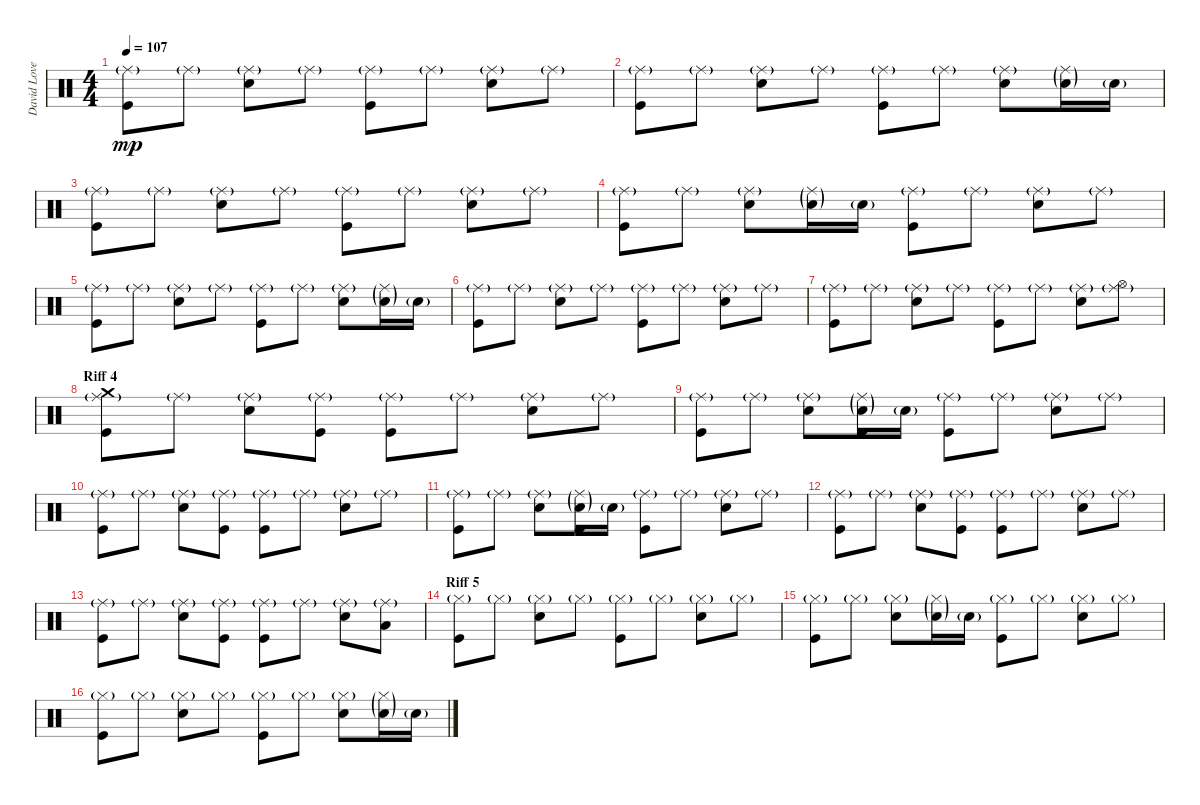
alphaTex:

\track ("David Lovering" "David Love") {instrument percussion}
\staff {score}
\articulation defaults
\ts (4 4)
\tempo 107
\clef neutral
\ks c
("Ride (middle)"{g} "Kick (hit)").8{dy mp} "Ride (middle)"{g}.8 ("Ride (middle)"{g} "Snare (hit) 2").8 "Ride (middle)"{g}.8 ("Ride (middle)"{g} "Kick (hit)").8 "Ride (middle)"{g}.8 ("Ride (middle)"{g} "Snare (hit) 2").8 "Ride (middle)"{g}.8 |
("Ride (middle)"{g} "Kick (hit)").8 "Ride (middle)"{g}.8 ("Ride (middle)"{g} "Snare (hit) 2").8 "Ride (middle)"{g}.8 ("Ride (middle)"{g} "Kick (hit)").8 "Ride (middle)"{g}.8 ("Ride (middle)"{g} "Snare (hit) 2").8 ("Ride (middle)"{g} "Snare (hit) 2"{g}).16 "Snare (hit) 2"{g}.16 |
("Ride (middle)"{g} "Kick (hit)").8 "Ride (middle)"{g}.8 ("Ride (middle)"{g} "Snare (hit) 2").8 "Ride (middle)"{g}.8 ("Ride (middle)"{g} "Kick (hit)").8 "Ride (middle)"{g}.8 ("Ride (middle)"{g} "Snare (hit) 2").8 "Ride (middle)"{g}.8 |
("Ride (middle)"{g} "Kick (hit)").8 "Ride (middle)"{g}.8 ("Ride (middle)"{g} "Snare (hit) 2").8 ("Ride (middle)"{g} "Snare (hit) 2"{g}).16 "Snare (hit) 2"{g}.16 ("Ride (middle)"{g} "Kick (hit)").8 "Ride (middle)"{g}.8 ("Ride (middle)"{g} "Snare (hit) 2").8 "Ride (middle)"{g}.8 |
("Ride (middle)"{g} "Kick (hit)").8 "Ride (middle)"{g}.8 ("Ride (middle)"{g} "Snare (hit) 2").8 "Ride (middle)"{g}.8 ("Ride (middle)"{g} "Kick (hit)").8 "Ride (middle)"{g}.8 ("Ride (middle)"{g} "Snare (hit) 2").8 ("Ride (middle)"{g} "Snare (hit) 2"{g}).16 "Snare (hit) 2"{g}.16 |
("Ride (middle)"{g} "Kick (hit)").8 "Ride (middle)"{g}.8 ("Ride (middle)"{g} "Snare (hit) 2").8 "Ride (middle)"{g}.8 ("Ride (middle)"{g} "Kick (hit)").8 "Ride (middle)"{g}.8 ("Ride (middle)"{g} "Snare (hit) 2").8 "Ride (middle)"{g}.8 |
("Ride (middle)"{g} "Kick (hit)").8 "Ride (middle)"{g}.8 ("Ride (middle)"{g} "Snare (hit) 2").8 "Ride (middle)"{g}.8 ("Ride (middle)"{g} "Kick (hit)").8 "Ride (middle)"{g}.8 ("Ride (middle)"{g} "Snare (hit) 2").8 ("Ride (middle)"{g} "Hi-Hat (open)").8 |
\section ("" "Riff 4")
("Ride (middle)"{g} "Crash medium (hit)" "Kick (hit)").8 "Ride (middle)"{g}.8 ("Ride (middle)"{g} "Snare (hit) 2").8 ("Ride (middle)"{g} "Kick (hit)").8 ("Ride (middle)"{g} "Kick (hit)").8 "Ride (middle)"{g}.8 ("Ride (middle)"{g} "Snare (hit) 2").8 "Ride (middle)"{g}.8 |
("Ride (middle)"{g} "Kick (hit)").8 "Ride (middle)"{g}.8 ("Ride (middle)"{g} "Snare (hit) 2").8 ("Ride (middle)"{g} "Snare (hit) 2"{g} "Kick (hit)").16 "Snare (hit) 2"{g}.16 ("Ride (middle)"{g} "Kick (hit)").8 "Ride (middle)"{g}.8 ("Ride (middle)"{g} "Snare (hit) 2").8 "Ride (middle)"{g}.8 |
("Ride (middle)"{g} "Kick (hit)").8 "Ride (middle)"{g}.8 ("Ride (middle)"{g} "Snare (hit) 2").8 ("Ride (middle)"{g} "Kick (hit)").8 ("Ride (middle)"{g} "Kick (hit)").8 "Ride (middle)"{g}.8 ("Ride (middle)"{g} "Snare (hit) 2").8 "Ride (middle)"{g}.8 |
("Ride (middle)"{g} "Kick (hit)").8 "Ride (middle)"{g}.8 ("Ride (middle)"{g} "Snare (hit) 2").8 ("Ride (middle)"{g} "Snare (hit) 2"{g} "Kick (hit)").16 "Snare (hit) 2"{g}.16 ("Ride (middle)"{g} "Kick (hit)").8 "Ride (middle)"{g}.8 ("Ride (middle)"{g} "Snare (hit) 2").8 "Ride (middle)"{g}.8 |
("Ride (middle)"{g} "Kick (hit)").8 "Ride (middle)"{g}.8 ("Ride (middle)"{g} "Snare (hit) 2").8 ("Ride (middle)"{g} "Kick (hit)").8 ("Ride (middle)"{g} "Kick (hit)").8 "Ride (middle)"{g}.8 ("Ride (middle)"{g} "Snare (hit) 2").8 "Ride (middle)"{g}.8 |
("Ride (middle)"{g} "Kick (hit)").8 "Ride (middle)"{g}.8 ("Ride (middle)"{g} "Snare (hit) 2").8 ("Ride (middle)"{g} "Kick (hit)").8 ("Ride (middle)"{g} "Kick (hit)").8 "Ride (middle)"{g}.8 ("Ride (middle)"{g} "Snare (hit) 2").8 ("Ride (middle)"{g} "Low Tom (hit)").8 |
\section ("" "Riff 5")
("Hi-Hat (closed)"{g} "Kick (hit)").8 "Hi-Hat (closed)"{g}.8 ("Hi-Hat (closed)"{g} "Snare (hit) 2").8 "Hi-Hat (closed)"{g}.8 ("Hi-Hat (closed)"{g} "Kick (hit)").8 "Hi-Hat (closed)"{g}.8 ("Hi-Hat (closed)"{g} "Snare (hit) 2").8 "Hi-Hat (closed)"{g}.8 |
("Hi-Hat (closed)"{g} "Kick (hit)").8 "Hi-Hat (closed)"{g}.8 ("Hi-Hat (closed)"{g} "Snare (hit) 2").8 ("Hi-Hat (closed)"{g} "Snare (hit) 2"{g}).16 "Snare (hit) 2"{g}.16 ("Hi-Hat (closed)"{g} "Kick (hit)").8 "Hi-Hat (closed)"{g}.8 ("Hi-Hat (closed)"{g} "Snare (hit) 2").8 "Hi-Hat (closed)"{g}.8 |
("Hi-Hat (closed)"{g} "Kick (hit)").8 "Hi-Hat (closed)"{g}.8 ("Hi-Hat (closed)"{g} "Snare (hit) 2").8 "Hi-Hat (closed)"{g}.8 ("Hi-Hat (closed)"{g} "Kick (hit)").8 "Hi-Hat (closed)"{g}.8 ("Hi-Hat (closed)"{g} "Snare (hit) 2").8 ("Hi-Hat (closed)"{g} "Snare (hit) 2"{g}).16 "Snare (hit) 2"{g}.16
